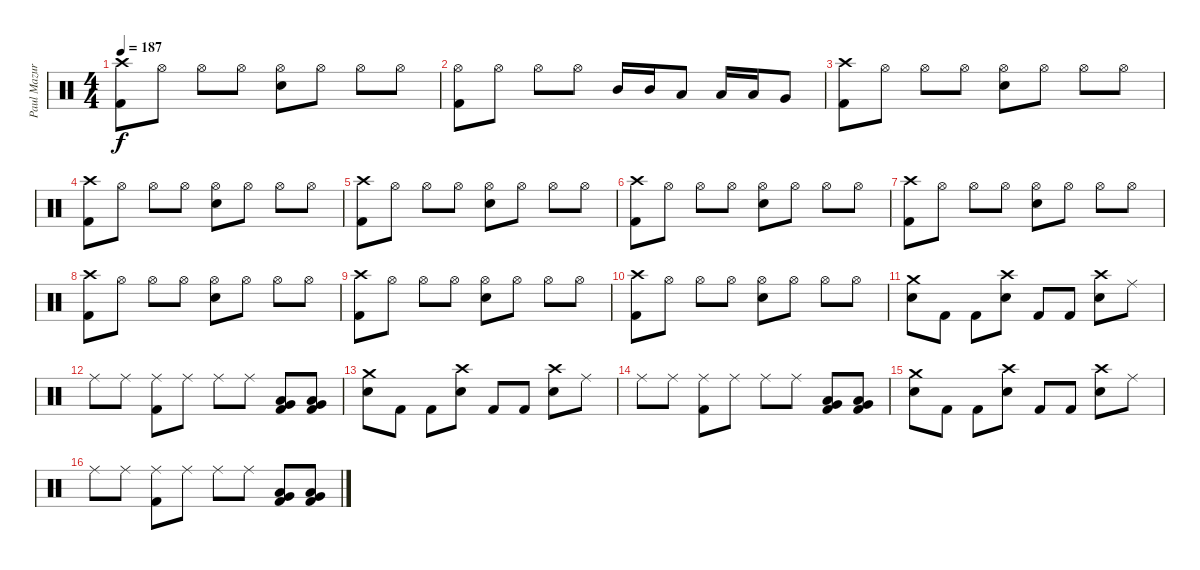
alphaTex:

\track ("Paul Mazurkiewicz - Drums" "Paul Mazur") {instrument percussion}
\staff {score}
\articulation defaults
\ts (4 4)
\tempo 187
\clef neutral
\ks c
("Crash high (hit)" "Kick (hit) 2").8{dy f} "Hi-Hat (open)".8 "Hi-Hat (open)".8 "Hi-Hat (open)".8 ("Hi-Hat (open)" "Snare (hit) 2").8 "Hi-Hat (open)".8 "Hi-Hat (open)".8 "Hi-Hat (open)".8 |
("Hi-Hat (open)" "Kick (hit) 2").8 "Hi-Hat (open)".8 "Hi-Hat (open)".8 "Hi-Hat (open)".8 "Mid Tom (hit)".16 "Mid Tom (hit)".16 "Low Tom (hit)".8 "Low Tom (hit)".16 "Low Tom (hit)".16 "Very Low Tom (hit)".8 |
("Crash high (hit)" "Kick (hit) 2").8 "Hi-Hat (open)".8 "Hi-Hat (open)".8 "Hi-Hat (open)".8 ("Hi-Hat (open)" "Snare (hit) 2").8 "Hi-Hat (open)".8 "Hi-Hat (open)".8 "Hi-Hat (open)".8 |
("Crash high (hit)" "Kick (hit) 2").8 "Hi-Hat (open)".8 "Hi-Hat (open)".8 "Hi-Hat (open)".8 ("Hi-Hat (open)" "Snare (hit) 2").8 "Hi-Hat (open)".8 "Hi-Hat (open)".8 "Hi-Hat (open)".8 |
("Crash high (hit)" "Kick (hit) 2").8 "Hi-Hat (open)".8 "Hi-Hat (open)".8 "Hi-Hat (open)".8 ("Hi-Hat (open)" "Snare (hit) 2").8 "Hi-Hat (open)".8 "Hi-Hat (open)".8 "Hi-Hat (open)".8 |
("Crash high (hit)" "Kick (hit) 2").8 "Hi-Hat (open)".8 "Hi-Hat (open)".8 "Hi-Hat (open)".8 ("Hi-Hat (open)" "Snare (hit) 2").8 "Hi-Hat (open)".8 "Hi-Hat (open)".8 "Hi-Hat (open)".8 |
("Crash high (hit)" "Kick (hit) 2").8 "Hi-Hat (open)".8 "Hi-Hat (open)".8 "Hi-Hat (open)".8 ("Hi-Hat (open)" "Snare (hit) 2").8 "Hi-Hat (open)".8 "Hi-Hat (open)".8 "Hi-Hat (open)".8 |
("Crash high (hit)" "Kick (hit) 2").8 "Hi-Hat (open)".8 "Hi-Hat (open)".8 "Hi-Hat (open)".8 ("Hi-Hat (open)" "Snare (hit) 2").8 "Hi-Hat (open)".8 "Hi-Hat (open)".8 "Hi-Hat (open)".8 |
("Crash high (hit)" "Kick (hit) 2").8 "Hi-Hat (open)".8 "Hi-Hat (open)".8 "Hi-Hat (open)".8 ("Hi-Hat (open)" "Snare (hit) 2").8 "Hi-Hat (open)".8 "Hi-Hat (open)".8 "Hi-Hat (open)".8 |
("Crash high (hit)" "Kick (hit) 2").8 "Hi-Hat (open)".8 "Hi-Hat (open)".8 "Hi-Hat (open)".8 ("Hi-Hat (open)" "Snare (hit) 2").8 "Hi-Hat (open)".8 "Hi-Hat (open)".8 "Hi-Hat (open)".8 |
("Crash medium (hit)" "Snare (hit) 2").8 "Kick (hit) 2".8 "Kick (hit) 2".8 ("Crash high (hit)" "Snare (hit) 2").8 "Kick (hit) 2".8 "Kick (hit) 2".8 ("Crash high (hit)" "Snare (hit) 2").8 "Ride (middle)".8 |
"Ride (middle)".8 "Ride (middle)".8 ("Ride (middle)" "Kick (hit) 2").8 "Ride (middle)".8 "Ride (middle)".8 "Ride (middle)".8 ("Kick (hit) 2" "Low Floor Tom (hit)" "Very Low Tom (hit)").8 ("Kick (hit) 2" "Low Floor Tom (hit)" "Very Low Tom (hit)").8 |
("Crash medium (hit)" "Snare (hit) 2").8 "Kick (hit) 2".8 "Kick (hit) 2".8 ("Crash high (hit)" "Snare (hit) 2").8 "Kick (hit) 2".8 "Kick (hit) 2".8 ("Crash high (hit)" "Snare (hit) 2").8 "Ride (middle)".8 |
"Ride (middle)".8 "Ride (middle)".8 ("Ride (middle)" "Kick (hit) 2").8 "Ride (middle)".8 "Ride (middle)".8 "Ride (middle)".8 ("Kick (hit) 2" "Low Floor Tom (hit)" "Very Low Tom (hit)").8 ("Kick (hit) 2" "Low Floor Tom (hit)" "Very Low Tom (hit)").8 |
("Crash medium (hit)" "Snare (hit) 2").8 "Kick (hit) 2".8 "Kick (hit) 2".8 ("Crash high (hit)" "Snare (hit) 2").8 "Kick (hit) 2".8 "Kick (hit) 2".8 ("Crash high (hit)" "Snare (hit) 2").8 "Ride (middle)".8 |
"Ride (middle)".8 "Ride (middle)".8 ("Ride (middle)" "Kick (hit) 2").8 "Ride (middle)".8 "Ride (middle)".8 "Ride (middle)".8 ("Kick (hit) 2" "Low Floor Tom (hit)" "Very Low Tom (hit)").8 ("Kick (hit) 2" "Low Floor Tom (hit)" "Very Low Tom (hit)").8
